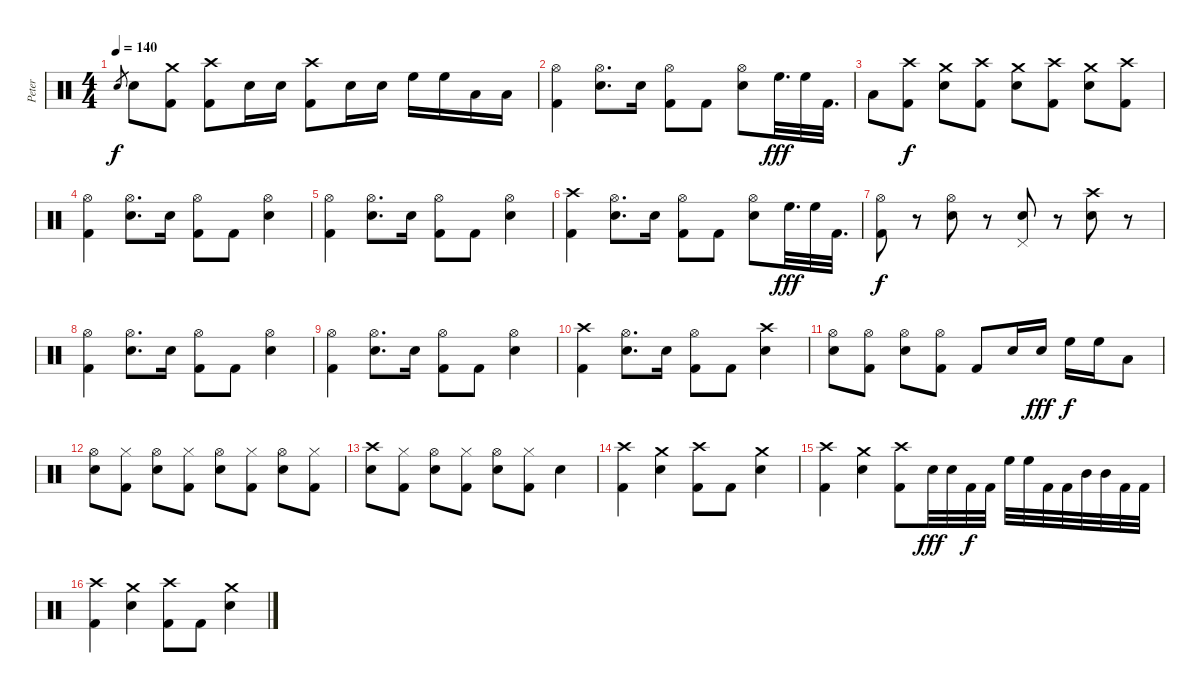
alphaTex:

\track ("Peter" "Peter") {instrument percussion}
\staff {score}
\articulation defaults
\ts (4 4)
\tempo 140
\clef neutral
\ks c "Electric Snare (hit)".8{gr dy f} "Electric Snare (hit)".8
("Crash medium (hit)" "Kick (hit) 2").8 ("Crash high (hit)" "Kick (hit) 2").8 "Electric Snare (hit)".16 "Electric Snare (hit)".16 ("Crash high (hit)" "Kick (hit) 2").8 "Electric Snare (hit)".16 "Electric Snare (hit)".16 "High Floor Tom (hit)".16 "High Floor Tom (hit)".16 "Low Tom (hit)".16 "Low Tom (hit)".16 |
("Hi-Hat (open)" "Kick (hit) 2").4 ("Hi-Hat (open)" "Electric Snare (hit)").8{d} "Snare (hit) 2".16 ("Hi-Hat (open)" "Kick (hit) 2").8 "Kick (hit) 2".8 ("Hi-Hat (open)" "Electric Snare (hit)").8 "High Floor Tom (hit)".32{d dy fff} "High Floor Tom (hit)".32 "Kick (hit) 2".32{d} |
"Low Floor Tom (hit)".8 ("Crash high (hit)" "Kick (hit) 2").8{dy f} ("Crash medium (hit)" "Electric Snare (hit)").8 ("Crash high (hit)" "Kick (hit) 2").8 ("Crash medium (hit)" "Electric Snare (hit)").8 ("Crash high (hit)" "Kick (hit) 2").8 ("Crash medium (hit)" "Electric Snare (hit)").8 ("Crash high (hit)" "Kick (hit) 2").8 |
("Hi-Hat (open)" "Kick (hit) 2").4 ("Hi-Hat (open)" "Electric Snare (hit)").8{d} "Snare (hit) 2".16 ("Hi-Hat (open)" "Kick (hit) 2").8 "Kick (hit) 2".8 ("Hi-Hat (open)" "Electric Snare (hit)").4 |
("Hi-Hat (open)" "Kick (hit) 2").4 ("Hi-Hat (open)" "Electric Snare (hit)").8{d} "Snare (hit) 2".16 ("Hi-Hat (open)" "Kick (hit) 2").8 "Kick (hit) 2".8 ("Hi-Hat (open)" "Electric Snare (hit)").4 |
("Crash high (hit)" "Kick (hit) 2").4 ("Hi-Hat (open)" "Electric Snare (hit)").8{d} "Snare (hit) 2".16 ("Hi-Hat (open)" "Kick (hit) 2").8 "Kick (hit) 2".8 ("Hi-Hat (open)" "Electric Snare (hit)").8 "High Floor Tom (hit)".32{d dy fff} "High Floor Tom (hit)".32 "Kick (hit) 2".32{d} |
("Hi-Hat (open)" "Kick (hit) 2").8{dy f} r.8 ("Hi-Hat (open)" "Electric Snare (hit)").8 r.8 ("Pedal Hi-Hat (hit)" "Electric Snare (hit)").8 r.8 ("Crash high (hit)" "Electric Snare (hit)").8 r.8 |
("Hi-Hat (open)" "Kick (hit) 2").4 ("Hi-Hat (open)" "Electric Snare (hit)").8{d} "Snare (hit) 2".16 ("Hi-Hat (open)" "Kick (hit) 2").8 "Kick (hit) 2".8 ("Hi-Hat (open)" "Electric Snare (hit)").4 |
("Hi-Hat (open)" "Kick (hit) 2").4 ("Hi-Hat (open)" "Electric Snare (hit)").8{d} "Snare (hit) 2".16 ("Hi-Hat (open)" "Kick (hit) 2").8 "Kick (hit) 2".8 ("Hi-Hat (open)" "Electric Snare (hit)").4 |
("Crash high (hit)" "Kick (hit) 2").4 ("Hi-Hat (open)" "Electric Snare (hit)").8{d} "Snare (hit) 2".16 ("Hi-Hat (open)" "Kick (hit) 2").8 "Kick (hit) 2".8 ("Crash high (hit)" "Electric Snare (hit)").4 |
("Hi-Hat (open)" "Electric Snare (hit)").8 ("Hi-Hat (open)" "Kick (hit) 2").8 ("Hi-Hat (open)" "Electric Snare (hit)").8 ("Hi-Hat (open)" "Kick (hit) 2").8 "Kick (hit) 2".8 "Electric Snare (hit)".16 "Electric Snare (hit)".16{dy fff} "High Floor Tom (hit)".16{dy f} "High Floor Tom (hit)".16 "Low Floor Tom (hit)".8 |
("Hi-Hat (open)" "Electric Snare (hit)").8 ("Hi-Hat (closed)" "Kick (hit) 2").8 ("Hi-Hat (open)" "Electric Snare (hit)").8 ("Hi-Hat (closed)" "Kick (hit) 2").8 ("Hi-Hat (open)" "Electric Snare (hit)").8 ("Hi-Hat (closed)" "Kick (hit) 2").8 ("Hi-Hat (open)" "Electric Snare (hit)").8 ("Hi-Hat (closed)" "Kick (hit) 2").8 |
("Crash high (hit)" "Electric Snare (hit)").8 ("Hi-Hat (closed)" "Kick (hit) 2").8 ("Hi-Hat (open)" "Electric Snare (hit)").8 ("Hi-Hat (closed)" "Kick (hit) 2").8 ("Hi-Hat (open)" "Electric Snare (hit)").8 ("Hi-Hat (closed)" "Kick (hit) 2").8 "Electric Snare (hit)".4 |
("Crash high (hit)" "Kick (hit) 2").4 ("Crash medium (hit)" "Electric Snare (hit)").4 ("Crash high (hit)" "Kick (hit) 2").8 "Kick (hit) 2".8 ("Crash medium (hit)" "Electric Snare (hit)").4 |
("Crash high (hit)" "Kick (hit) 2").4 ("Crash medium (hit)" "Electric Snare (hit)").4 ("Crash high (hit)" "Kick (hit) 2").8{volume 16} "Electric Snare (hit)".32{dy fff} "Electric Snare (hit)".32 "Kick (hit) 2".32{dy f} "Kick (hit) 2".32 "High Floor Tom (hit)".32 "High Floor Tom (hit)".32 "Kick (hit) 2".32 "Kick (hit) 2".32 "Mid Tom (hit)".32 "Mid Tom (hit)".32 "Kick (hit) 2".32 "Kick (hit) 2".32 |
("Crash high (hit)" "Kick (hit) 2").4{volume 14} ("Crash medium (hit)" "Electric Snare (hit)").4 ("Crash high (hit)" "Kick (hit) 2").8 "Kick (hit) 2".8 ("Crash medium (hit)" "Electric Snare (hit)").4
